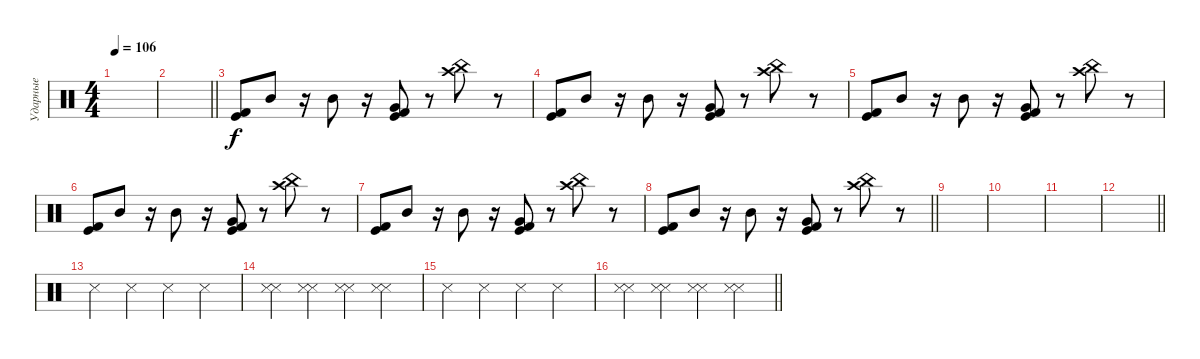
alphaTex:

\track ("Ударные" "Ударные") {instrument percussion}
\staff {score}
\articulation defaults
\ts (4 4)
\tempo 106
\clef neutral
\ks c
|
\barLineRight lightlight
|
("Kick (hit) 2" "Kick (hit)").8 "Mid Tom (hit)".8 r.16 "Mid Tom (hit)".8 r.16 ("Very Low Tom (hit)" "Kick (hit) 2" "Kick (hit)").8 r.8 ("Crash high (hit)" "China (hit)").8 r.8 |
("Kick (hit) 2" "Kick (hit)").8 "Mid Tom (hit)".8 r.16 "Mid Tom (hit)".8 r.16 ("Very Low Tom (hit)" "Kick (hit) 2" "Kick (hit)").8 r.8 ("Crash high (hit)" "China (hit)").8 r.8 |
("Kick (hit) 2" "Kick (hit)").8 "Mid Tom (hit)".8 r.16 "Mid Tom (hit)".8 r.16 ("Very Low Tom (hit)" "Kick (hit) 2" "Kick (hit)").8 r.8 ("Crash high (hit)" "China (hit)").8 r.8 |
("Kick (hit) 2" "Kick (hit)").8 "Mid Tom (hit)".8 r.16 "Mid Tom (hit)".8 r.16 ("Very Low Tom (hit)" "Kick (hit) 2" "Kick (hit)").8 r.8 ("Crash high (hit)" "China (hit)").8 r.8 |
("Kick (hit) 2" "Kick (hit)").8 "Mid Tom (hit)".8 r.16 "Mid Tom (hit)".8 r.16 ("Very Low Tom (hit)" "Kick (hit) 2" "Kick (hit)").8 r.8 ("Crash high (hit)" "China (hit)").8 r.8 |
\barLineRight lightlight
("Kick (hit) 2" "Kick (hit)").8 "Mid Tom (hit)".8 r.16 "Mid Tom (hit)".8 r.16 ("Very Low Tom (hit)" "Kick (hit) 2" "Kick (hit)").8 r.8 ("Crash high (hit)" "China (hit)").8 r.8 |
|
|
|
\barLineRight lightlight
|
"Snare (side stick) 3".4 "Snare (side stick) 3".4 "Snare (side stick) 3".4 "Snare (side stick) 3".4 |
("Snare (side stick) 3" "Snare (side stick) 3").4 ("Snare (side stick) 3" "Snare (side stick) 3").4 ("Snare (side stick) 3" "Snare (side stick) 3").4 ("Snare (side stick) 3" "Snare (side stick) 3").4 |
"Snare (side stick) 3".4 "Snare (side stick) 3".4 "Snare (side stick) 3".4 "Snare (side stick) 3".4 |
\barLineRight lightlight
("Snare (side stick) 3" "Snare (side stick) 3").4 ("Snare (side stick) 3" "Snare (side stick) 3").4 ("Snare (side stick) 3" "Snare (side stick) 3").4 ("Snare (side stick) 3" "Snare (side stick) 3").4
